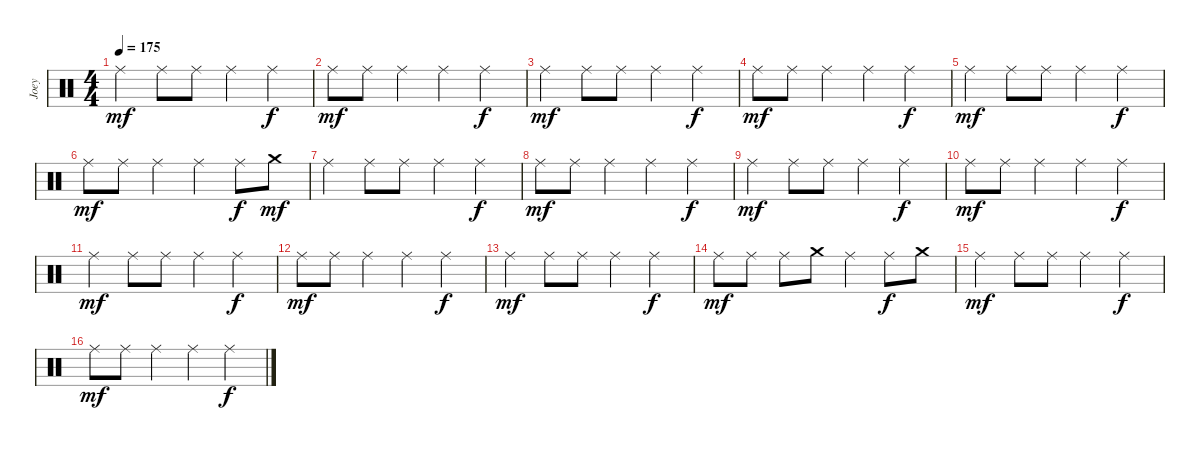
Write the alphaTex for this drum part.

\track ("Joey" "Joey") {instrument percussion}
\staff {score}
\articulation defaults
\ts (4 4)
\tempo 175
\clef neutral
\ks c "Ride (middle)".4{dy mf} "Ride (middle)".8 "Ride (middle)".8 "Ride (middle)".4 "Ride (middle)".4{dy f}
|
"Ride (middle)".8{dy mf} "Ride (middle)".8 "Ride (middle)".4 "Ride (middle)".4 "Ride (middle)".4{dy f} |
"Ride (middle)".4{dy mf} "Ride (middle)".8 "Ride (middle)".8 "Ride (middle)".4 "Ride (middle)".4{dy f} |
"Ride (middle)".8{dy mf} "Ride (middle)".8 "Ride (middle)".4 "Ride (middle)".4 "Ride (middle)".4{dy f} |
"Ride (middle)".4{dy mf} "Ride (middle)".8 "Ride (middle)".8 "Ride (middle)".4 "Ride (middle)".4{dy f} |
"Ride (middle)".8{dy mf} "Ride (middle)".8 "Ride (middle)".4 "Ride (middle)".4 "Ride (middle)".8{dy f} "Crash medium (hit)".8{dy mf} |
"Ride (middle)".4 "Ride (middle)".8 "Ride (middle)".8 "Ride (middle)".4 "Ride (middle)".4{dy f} |
"Ride (middle)".8{dy mf} "Ride (middle)".8 "Ride (middle)".4 "Ride (middle)".4 "Ride (middle)".4{dy f} |
"Ride (middle)".4{dy mf} "Ride (middle)".8 "Ride (middle)".8 "Ride (middle)".4 "Ride (middle)".4{dy f} |
"Ride (middle)".8{dy mf} "Ride (middle)".8 "Ride (middle)".4 "Ride (middle)".4 "Ride (middle)".4{dy f} |
"Ride (middle)".4{dy mf} "Ride (middle)".8 "Ride (middle)".8 "Ride (middle)".4 "Ride (middle)".4{dy f} |
"Ride (middle)".8{dy mf} "Ride (middle)".8 "Ride (middle)".4 "Ride (middle)".4 "Ride (middle)".4{dy f} |
"Ride (middle)".4{dy mf} "Ride (middle)".8 "Ride (middle)".8 "Ride (middle)".4 "Ride (middle)".4{dy f} |
"Ride (middle)".8{dy mf} "Ride (middle)".8 "Ride (middle)".8 "Crash medium (hit)".8 "Ride (middle)".4 "Ride (middle)".8{dy f} "Crash medium (hit)".8 |
"Ride (middle)".4{dy mf} "Ride (middle)".8 "Ride (middle)".8 "Ride (middle)".4 "Ride (middle)".4{dy f} |
"Ride (middle)".8{dy mf} "Ride (middle)".8 "Ride (middle)".4 "Ride (middle)".4 "Ride (middle)".4{dy f}
